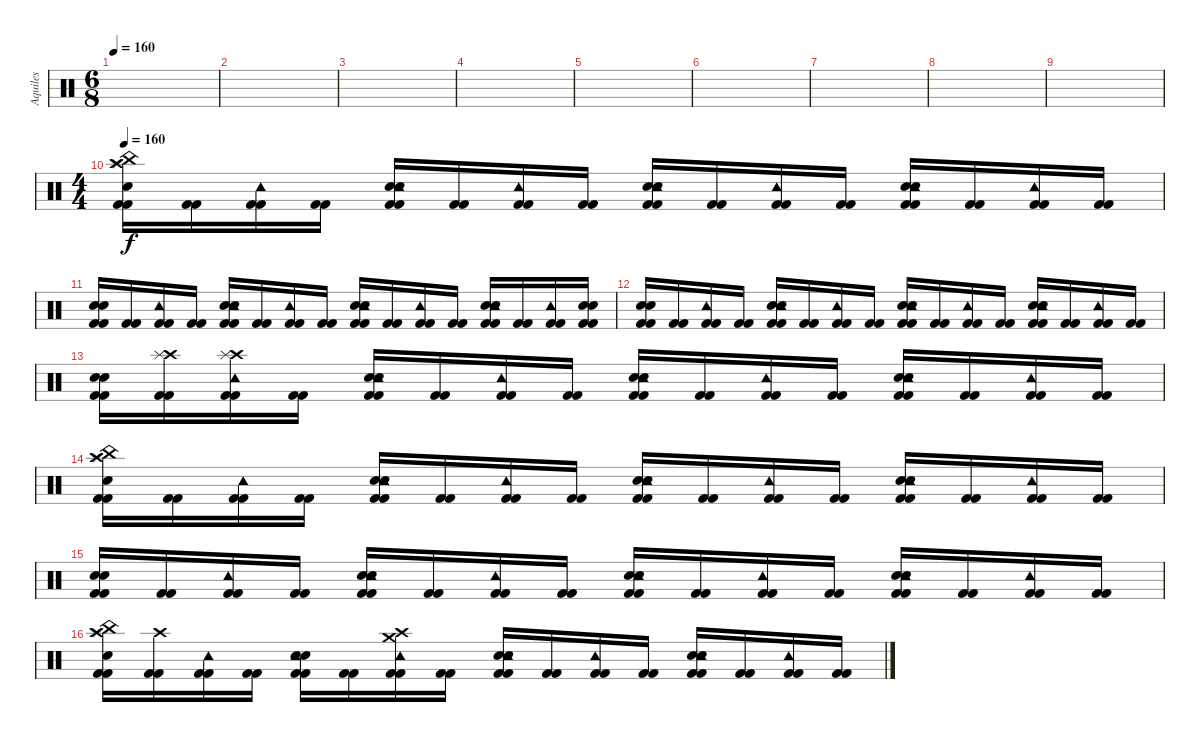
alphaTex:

\track ("Aquiles" "Aquiles") {instrument percussion}
\staff {score}
\articulation defaults
\ts (6 8)
\tempo 160
\tempo 100
\tempo 160
\clef neutral
\ks c
|
|
|
|
|
|
|
|
|
\ts (4 4)
\tempo 160
("Kick (hit) 2" "Kick (hit) 2" "Electric Snare (hit)" "Crash high (hit)" "Splash (hit)" "China (hit)").16 ("Kick (hit) 2" "Kick (hit) 2").16 ("Kick (hit) 2" "Kick (hit) 2" "Tambourine (hit)").16 ("Kick (hit) 2" "Kick (hit) 2").16 ("Kick (hit) 2" "Kick (hit) 2" "Electric Snare (hit)" "Electric Snare (hit)" "Tambourine (hit)").16 ("Kick (hit) 2" "Kick (hit) 2").16 ("Kick (hit) 2" "Kick (hit) 2" "Tambourine (hit)").16 ("Kick (hit) 2" "Kick (hit) 2").16 ("Kick (hit) 2" "Kick (hit) 2" "Electric Snare (hit)" "Electric Snare (hit)" "Tambourine (hit)").16 ("Kick (hit) 2" "Kick (hit) 2").16 ("Kick (hit) 2" "Kick (hit) 2" "Tambourine (hit)").16 ("Kick (hit) 2" "Kick (hit) 2").16 ("Kick (hit) 2" "Kick (hit) 2" "Electric Snare (hit)" "Electric Snare (hit)" "Tambourine (hit)").16 ("Kick (hit) 2" "Kick (hit) 2").16 ("Kick (hit) 2" "Kick (hit) 2" "Tambourine (hit)").16 ("Kick (hit) 2" "Kick (hit) 2").16 |
("Kick (hit) 2" "Kick (hit) 2" "Electric Snare (hit)" "Electric Snare (hit)").16 ("Kick (hit) 2" "Kick (hit) 2").16 ("Kick (hit) 2" "Kick (hit) 2" "Tambourine (hit)").16 ("Kick (hit) 2" "Kick (hit) 2").16 ("Kick (hit) 2" "Kick (hit) 2" "Electric Snare (hit)" "Electric Snare (hit)" "Tambourine (hit)").16 ("Kick (hit) 2" "Kick (hit) 2").16 ("Kick (hit) 2" "Kick (hit) 2" "Tambourine (hit)").16 ("Kick (hit) 2" "Kick (hit) 2").16 ("Kick (hit) 2" "Kick (hit) 2" "Electric Snare (hit)" "Electric Snare (hit)" "Tambourine (hit)").16 ("Kick (hit) 2" "Kick (hit) 2").16 ("Kick (hit) 2" "Kick (hit) 2" "Tambourine (hit)").16 ("Kick (hit) 2" "Kick (hit) 2").16 ("Kick (hit) 2" "Kick (hit) 2" "Electric Snare (hit)" "Electric Snare (hit)" "Tambourine (hit)").16 ("Kick (hit) 2" "Kick (hit) 2").16 ("Kick (hit) 2" "Kick (hit) 2" "Tambourine (hit)").16 ("Kick (hit) 2" "Kick (hit) 2" "Electric Snare (hit)" "Electric Snare (hit)").16 |
("Kick (hit) 2" "Kick (hit) 2" "Electric Snare (hit)" "Electric Snare (hit)").16 ("Kick (hit) 2" "Kick (hit) 2").16 ("Kick (hit) 2" "Kick (hit) 2" "Tambourine (hit)").16 ("Kick (hit) 2" "Kick (hit) 2").16 ("Kick (hit) 2" "Kick (hit) 2" "Electric Snare (hit)" "Electric Snare (hit)" "Tambourine (hit)").16 ("Kick (hit) 2" "Kick (hit) 2").16 ("Kick (hit) 2" "Kick (hit) 2" "Tambourine (hit)").16 ("Kick (hit) 2" "Kick (hit) 2").16 ("Kick (hit) 2" "Kick (hit) 2" "Electric Snare (hit)" "Electric Snare (hit)" "Tambourine (hit)").16 ("Kick (hit) 2" "Kick (hit) 2").16 ("Kick (hit) 2" "Kick (hit) 2" "Tambourine (hit)").16 ("Kick (hit) 2" "Kick (hit) 2").16 ("Kick (hit) 2" "Kick (hit) 2" "Electric Snare (hit)" "Electric Snare (hit)" "Tambourine (hit)").16 ("Kick (hit) 2" "Kick (hit) 2").16 ("Kick (hit) 2" "Kick (hit) 2" "Tambourine (hit)").16 ("Kick (hit) 2" "Kick (hit) 2").16 |
("Kick (hit) 2" "Kick (hit) 2" "Electric Snare (hit)" "Electric Snare (hit)").16 ("Kick (hit) 2" "Kick (hit) 2" "Crash high (hit)" "Splash (hit)").16 ("Kick (hit) 2" "Kick (hit) 2" "Crash high (hit)" "Tambourine (hit)" "Splash (hit)").16 ("Kick (hit) 2" "Kick (hit) 2").16 ("Kick (hit) 2" "Kick (hit) 2" "Electric Snare (hit)" "Electric Snare (hit)" "Tambourine (hit)").16 ("Kick (hit) 2" "Kick (hit) 2").16 ("Kick (hit) 2" "Kick (hit) 2" "Tambourine (hit)").16 ("Kick (hit) 2" "Kick (hit) 2").16 ("Kick (hit) 2" "Kick (hit) 2" "Electric Snare (hit)" "Electric Snare (hit)" "Tambourine (hit)").16 ("Kick (hit) 2" "Kick (hit) 2").16 ("Kick (hit) 2" "Kick (hit) 2" "Tambourine (hit)").16 ("Kick (hit) 2" "Kick (hit) 2").16 ("Kick (hit) 2" "Kick (hit) 2" "Electric Snare (hit)" "Electric Snare (hit)" "Tambourine (hit)").16 ("Kick (hit) 2" "Kick (hit) 2").16 ("Kick (hit) 2" "Kick (hit) 2" "Tambourine (hit)").16 ("Kick (hit) 2" "Kick (hit) 2").16 |
("Kick (hit) 2" "Kick (hit) 2" "Electric Snare (hit)" "Crash high (hit)" "Splash (hit)" "China (hit)").16 ("Kick (hit) 2" "Kick (hit) 2").16 ("Kick (hit) 2" "Kick (hit) 2" "Tambourine (hit)").16 ("Kick (hit) 2" "Kick (hit) 2").16 ("Kick (hit) 2" "Kick (hit) 2" "Electric Snare (hit)" "Electric Snare (hit)" "Tambourine (hit)").16 ("Kick (hit) 2" "Kick (hit) 2").16 ("Kick (hit) 2" "Kick (hit) 2" "Tambourine (hit)").16 ("Kick (hit) 2" "Kick (hit) 2").16 ("Kick (hit) 2" "Kick (hit) 2" "Electric Snare (hit)" "Electric Snare (hit)" "Tambourine (hit)").16 ("Kick (hit) 2" "Kick (hit) 2").16 ("Kick (hit) 2" "Kick (hit) 2" "Tambourine (hit)").16 ("Kick (hit) 2" "Kick (hit) 2").16 ("Kick (hit) 2" "Kick (hit) 2" "Electric Snare (hit)" "Electric Snare (hit)" "Tambourine (hit)").16 ("Kick (hit) 2" "Kick (hit) 2").16 ("Kick (hit) 2" "Kick (hit) 2" "Tambourine (hit)").16 ("Kick (hit) 2" "Kick (hit) 2").16 |
("Kick (hit) 2" "Kick (hit) 2" "Electric Snare (hit)" "Electric Snare (hit)").16 ("Kick (hit) 2" "Kick (hit) 2").16 ("Kick (hit) 2" "Kick (hit) 2" "Tambourine (hit)").16 ("Kick (hit) 2" "Kick (hit) 2").16 ("Kick (hit) 2" "Kick (hit) 2" "Electric Snare (hit)" "Electric Snare (hit)" "Tambourine (hit)").16 ("Kick (hit) 2" "Kick (hit) 2").16 ("Kick (hit) 2" "Kick (hit) 2" "Tambourine (hit)").16 ("Kick (hit) 2" "Kick (hit) 2").16 ("Kick (hit) 2" "Kick (hit) 2" "Electric Snare (hit)" "Electric Snare (hit)" "Tambourine (hit)").16 ("Kick (hit) 2" "Kick (hit) 2").16 ("Kick (hit) 2" "Kick (hit) 2" "Tambourine (hit)").16 ("Kick (hit) 2" "Kick (hit) 2").16 ("Kick (hit) 2" "Kick (hit) 2" "Electric Snare (hit)" "Electric Snare (hit)" "Tambourine (hit)").16 ("Kick (hit) 2" "Kick (hit) 2").16 ("Kick (hit) 2" "Kick (hit) 2" "Tambourine (hit)").16 ("Kick (hit) 2" "Kick (hit) 2").16 |
("Kick (hit) 2" "Kick (hit) 2" "Electric Snare (hit)" "Crash high (hit)" "Splash (hit)" "China (hit)").16 ("Kick (hit) 2" "Kick (hit) 2" "Crash high (hit)").16 ("Kick (hit) 2" "Kick (hit) 2" "Tambourine (hit)").16 ("Kick (hit) 2" "Kick (hit) 2").16 ("Kick (hit) 2" "Kick (hit) 2" "Electric Snare (hit)" "Electric Snare (hit)" "Tambourine (hit)").16 ("Kick (hit) 2" "Kick (hit) 2").16 ("Kick (hit) 2" "Kick (hit) 2" "Crash high (hit)" "Tambourine (hit)" "Crash medium (hit)").16 ("Kick (hit) 2" "Kick (hit) 2").16 ("Kick (hit) 2" "Kick (hit) 2" "Electric Snare (hit)" "Electric Snare (hit)" "Tambourine (hit)").16 ("Kick (hit) 2" "Kick (hit) 2").16 ("Kick (hit) 2" "Kick (hit) 2" "Tambourine (hit)").16 ("Kick (hit) 2" "Kick (hit) 2").16 ("Kick (hit) 2" "Kick (hit) 2" "Electric Snare (hit)" "Electric Snare (hit)" "Tambourine (hit)").16 ("Kick (hit) 2" "Kick (hit) 2").16 ("Kick (hit) 2" "Kick (hit) 2" "Tambourine (hit)").16 ("Kick (hit) 2" "Kick (hit) 2").16
